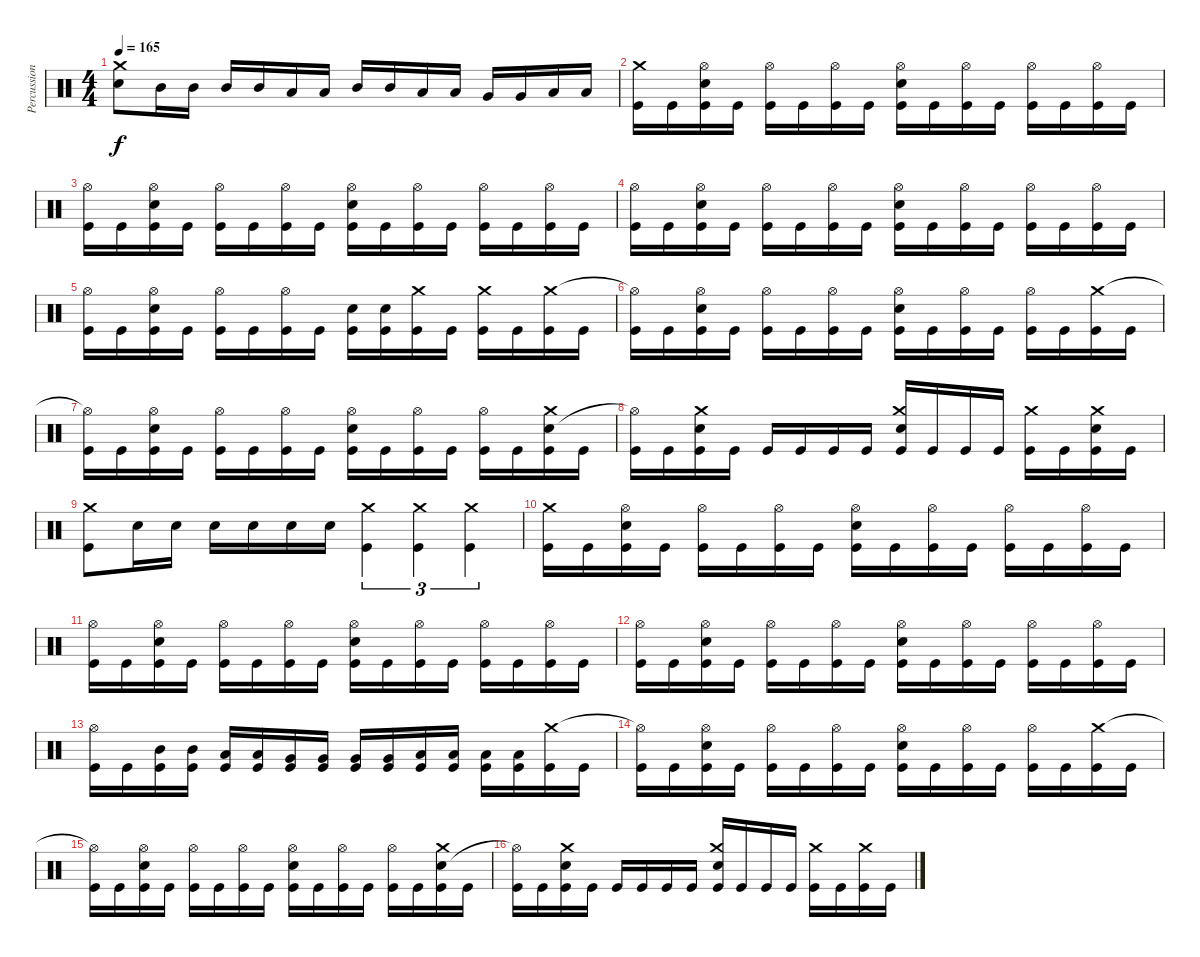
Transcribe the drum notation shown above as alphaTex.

\track ("Percussions" "Percussion") {instrument percussion}
\staff {score}
\articulation defaults
\ts (4 4)
\tempo 165
\clef neutral
\ks c
("Electric Snare (hit)" "Crash medium (hit)").8{dy f} "Mid Tom (hit)".16 "Mid Tom (hit)".16 "Mid Tom (hit)".16 "Mid Tom (hit)".16 "Low Tom (hit)".16 "Low Tom (hit)".16 "Mid Tom (hit)".16 "Mid Tom (hit)".16 "Low Tom (hit)".16 "Low Tom (hit)".16 "Very Low Tom (hit)".16 "Very Low Tom (hit)".16 "Low Floor Tom (hit)".16 "Low Floor Tom (hit)".16 |
("Kick (hit)" "Crash medium (hit)").16 "Kick (hit)".16 ("Kick (hit)" "Electric Snare (hit)" "Hi-Hat (open)").16 "Kick (hit)".16 ("Kick (hit)" "Hi-Hat (open)").16 "Kick (hit)".16 ("Kick (hit)" "Hi-Hat (open)").16 "Kick (hit)".16 ("Kick (hit)" "Electric Snare (hit)" "Hi-Hat (open)").16 "Kick (hit)".16 ("Kick (hit)" "Hi-Hat (open)").16 "Kick (hit)".16 ("Kick (hit)" "Hi-Hat (open)").16 "Kick (hit)".16 ("Kick (hit)" "Hi-Hat (open)").16 "Kick (hit)".16 |
("Kick (hit)" "Hi-Hat (open)").16 "Kick (hit)".16 ("Kick (hit)" "Electric Snare (hit)" "Hi-Hat (open)").16 "Kick (hit)".16 ("Kick (hit)" "Hi-Hat (open)").16 "Kick (hit)".16 ("Kick (hit)" "Hi-Hat (open)").16 "Kick (hit)".16 ("Kick (hit)" "Electric Snare (hit)" "Hi-Hat (open)").16 "Kick (hit)".16 ("Kick (hit)" "Hi-Hat (open)").16 "Kick (hit)".16 ("Kick (hit)" "Hi-Hat (open)").16 "Kick (hit)".16 ("Kick (hit)" "Hi-Hat (open)").16 "Kick (hit)".16 |
("Kick (hit)" "Hi-Hat (open)").16 "Kick (hit)".16 ("Kick (hit)" "Electric Snare (hit)" "Hi-Hat (open)").16 "Kick (hit)".16 ("Kick (hit)" "Hi-Hat (open)").16 "Kick (hit)".16 ("Kick (hit)" "Hi-Hat (open)").16 "Kick (hit)".16 ("Kick (hit)" "Electric Snare (hit)" "Hi-Hat (open)").16 "Kick (hit)".16 ("Kick (hit)" "Hi-Hat (open)").16 "Kick (hit)".16 ("Kick (hit)" "Hi-Hat (open)").16 "Kick (hit)".16 ("Kick (hit)" "Hi-Hat (open)").16 "Kick (hit)".16 |
("Kick (hit)" "Hi-Hat (open)").16 "Kick (hit)".16 ("Kick (hit)" "Electric Snare (hit)" "Hi-Hat (open)").16 "Kick (hit)".16 ("Kick (hit)" "Hi-Hat (open)").16 "Kick (hit)".16 ("Kick (hit)" "Hi-Hat (open)").16 "Kick (hit)".16 ("Kick (hit)" "Electric Snare (hit)").16 ("Kick (hit)" "Electric Snare (hit)").16 ("Kick (hit)" "Crash medium (hit)").16 "Kick (hit)".16 ("Kick (hit)" "Crash medium (hit)").16 "Kick (hit)".16 ("Kick (hit)" "Crash medium (hit)").16 "Kick (hit)".16 |
("Kick (hit)" "Hi-Hat (open)"{t}).16 "Kick (hit)".16 ("Kick (hit)" "Electric Snare (hit)" "Hi-Hat (open)").16 "Kick (hit)".16 ("Kick (hit)" "Hi-Hat (open)").16 "Kick (hit)".16 ("Kick (hit)" "Hi-Hat (open)").16 "Kick (hit)".16 ("Kick (hit)" "Electric Snare (hit)" "Hi-Hat (open)").16 "Kick (hit)".16 ("Kick (hit)" "Hi-Hat (open)").16 "Kick (hit)".16 ("Kick (hit)" "Hi-Hat (open)").16 "Kick (hit)".16 ("Kick (hit)" "Crash medium (hit)").16 "Kick (hit)".16 |
("Kick (hit)" "Hi-Hat (open)"{t}).16 "Kick (hit)".16 ("Kick (hit)" "Electric Snare (hit)" "Hi-Hat (open)").16 "Kick (hit)".16 ("Kick (hit)" "Hi-Hat (open)").16 "Kick (hit)".16 ("Kick (hit)" "Hi-Hat (open)").16 "Kick (hit)".16 ("Kick (hit)" "Electric Snare (hit)" "Hi-Hat (open)").16 "Kick (hit)".16 ("Kick (hit)" "Hi-Hat (open)").16 "Kick (hit)".16 ("Kick (hit)" "Hi-Hat (open)").16 "Kick (hit)".16 ("Kick (hit)" "Electric Snare (hit)" "Crash medium (hit)").16 "Kick (hit)".16 |
("Kick (hit)" "Hi-Hat (open)"{t}).16 "Kick (hit)".16 ("Kick (hit)" "Electric Snare (hit)" "Crash medium (hit)").16 "Kick (hit)".16 "Kick (hit)".16 "Kick (hit)".16 "Kick (hit)".16 "Kick (hit)".16 ("Kick (hit)" "Electric Snare (hit)" "Crash medium (hit)").16 "Kick (hit)".16 "Kick (hit)".16 "Kick (hit)".16 ("Kick (hit)" "Crash medium (hit)").16 "Kick (hit)".16 ("Kick (hit)" "Electric Snare (hit)" "Crash medium (hit)").16 "Kick (hit)".16 |
("Kick (hit)" "Crash medium (hit)").8 "Electric Snare (hit)".16 "Electric Snare (hit)".16 "Electric Snare (hit)".16 "Electric Snare (hit)".16 "Electric Snare (hit)".16 "Electric Snare (hit)".16 ("Kick (hit)" "Crash medium (hit)").4{tu (3 2)} ("Kick (hit)" "Crash medium (hit)").4{tu (3 2)} ("Kick (hit)" "Crash medium (hit)").4{tu (3 2)} |
("Kick (hit)" "Crash medium (hit)").16 "Kick (hit)".16 ("Kick (hit)" "Electric Snare (hit)" "Hi-Hat (open)").16 "Kick (hit)".16 ("Kick (hit)" "Hi-Hat (open)").16 "Kick (hit)".16 ("Kick (hit)" "Hi-Hat (open)").16 "Kick (hit)".16 ("Kick (hit)" "Electric Snare (hit)" "Hi-Hat (open)").16 "Kick (hit)".16 ("Kick (hit)" "Hi-Hat (open)").16 "Kick (hit)".16 ("Kick (hit)" "Hi-Hat (open)").16 "Kick (hit)".16 ("Kick (hit)" "Hi-Hat (open)").16 "Kick (hit)".16 |
("Kick (hit)" "Hi-Hat (open)").16 "Kick (hit)".16 ("Kick (hit)" "Electric Snare (hit)" "Hi-Hat (open)").16 "Kick (hit)".16 ("Kick (hit)" "Hi-Hat (open)").16 "Kick (hit)".16 ("Kick (hit)" "Hi-Hat (open)").16 "Kick (hit)".16 ("Kick (hit)" "Electric Snare (hit)" "Hi-Hat (open)").16 "Kick (hit)".16 ("Kick (hit)" "Hi-Hat (open)").16 "Kick (hit)".16 ("Kick (hit)" "Hi-Hat (open)").16 "Kick (hit)".16 ("Kick (hit)" "Hi-Hat (open)").16 "Kick (hit)".16 |
("Kick (hit)" "Hi-Hat (open)").16 "Kick (hit)".16 ("Kick (hit)" "Electric Snare (hit)" "Hi-Hat (open)").16 "Kick (hit)".16 ("Kick (hit)" "Hi-Hat (open)").16 "Kick (hit)".16 ("Kick (hit)" "Hi-Hat (open)").16 "Kick (hit)".16 ("Kick (hit)" "Electric Snare (hit)" "Hi-Hat (open)").16 "Kick (hit)".16 ("Kick (hit)" "Hi-Hat (open)").16 "Kick (hit)".16 ("Kick (hit)" "Hi-Hat (open)").16 "Kick (hit)".16 ("Kick (hit)" "Hi-Hat (open)").16 "Kick (hit)".16 |
("Kick (hit)" "Hi-Hat (open)").16 "Kick (hit)".16 ("Kick (hit)" "Mid Tom (hit)").16 ("Kick (hit)" "Mid Tom (hit)").16 ("Kick (hit)" "Low Tom (hit)").16 ("Kick (hit)" "Low Tom (hit)").16 ("Kick (hit)" "Very Low Tom (hit)").16 ("Kick (hit)" "Very Low Tom (hit)").16 ("Kick (hit)" "Very Low Tom (hit)").16 ("Kick (hit)" "Very Low Tom (hit)").16 ("Kick (hit)" "Low Tom (hit)").16 ("Kick (hit)" "Low Tom (hit)").16 ("Kick (hit)" "Low Tom (hit)").16 ("Kick (hit)" "Low Tom (hit)").16 ("Kick (hit)" "Crash medium (hit)").16 "Kick (hit)".16 |
("Kick (hit)" "Hi-Hat (open)"{t}).16 "Kick (hit)".16 ("Kick (hit)" "Electric Snare (hit)" "Hi-Hat (open)").16 "Kick (hit)".16 ("Kick (hit)" "Hi-Hat (open)").16 "Kick (hit)".16 ("Kick (hit)" "Hi-Hat (open)").16 "Kick (hit)".16 ("Kick (hit)" "Electric Snare (hit)" "Hi-Hat (open)").16 "Kick (hit)".16 ("Kick (hit)" "Hi-Hat (open)").16 "Kick (hit)".16 ("Kick (hit)" "Hi-Hat (open)").16 "Kick (hit)".16 ("Kick (hit)" "Crash medium (hit)").16 "Kick (hit)".16 |
("Kick (hit)" "Hi-Hat (open)"{t}).16 "Kick (hit)".16 ("Kick (hit)" "Electric Snare (hit)" "Hi-Hat (open)").16 "Kick (hit)".16 ("Kick (hit)" "Hi-Hat (open)").16 "Kick (hit)".16 ("Kick (hit)" "Hi-Hat (open)").16 "Kick (hit)".16 ("Kick (hit)" "Electric Snare (hit)" "Hi-Hat (open)").16 "Kick (hit)".16 ("Kick (hit)" "Hi-Hat (open)").16 "Kick (hit)".16 ("Kick (hit)" "Hi-Hat (open)").16 "Kick (hit)".16 ("Kick (hit)" "Electric Snare (hit)" "Crash medium (hit)").16 "Kick (hit)".16 |
("Kick (hit)" "Hi-Hat (open)"{t}).16 "Kick (hit)".16 ("Kick (hit)" "Electric Snare (hit)" "Crash medium (hit)").16 "Kick (hit)".16 "Kick (hit)".16 "Kick (hit)".16 "Kick (hit)".16 "Kick (hit)".16 ("Kick (hit)" "Electric Snare (hit)" "Crash medium (hit)").16 "Kick (hit)".16 "Kick (hit)".16 "Kick (hit)".16 ("Kick (hit)" "Crash medium (hit)").16 "Kick (hit)".16 ("Kick (hit)" "Crash medium (hit)").16 "Kick (hit)".16
